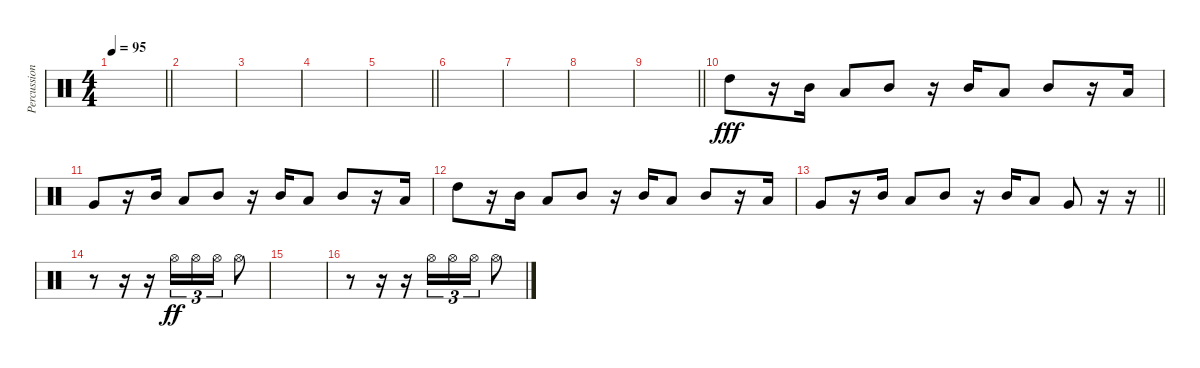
\track ("Percussions" "Percussion") {instrument percussion}
\staff {score}
\articulation defaults
\ts (4 4)
\tempo 95
\clef neutral
\barLineRight lightlight
\ks c
|
|
|
|
\barLineRight lightlight
|
|
|
|
\barLineRight lightlight
|
"High Tom (hit)".8{dy fff} r.16 "Mid Tom (hit)".16 "Low Tom (hit)".8 "Mid Tom (hit)".8 r.16 "Mid Tom (hit)".16 "Low Tom (hit)".8 "Mid Tom (hit)".8 r.16 "Low Tom (hit)".16 |
"Very Low Tom (hit)".8 r.16 "Mid Tom (hit)".16 "Low Tom (hit)".8 "Mid Tom (hit)".8 r.16 "Mid Tom (hit)".16 "Low Tom (hit)".8 "Mid Tom (hit)".8 r.16 "Low Tom (hit)".16 |
"High Tom (hit)".8 r.16 "Mid Tom (hit)".16 "Low Tom (hit)".8 "Mid Tom (hit)".8 r.16 "Mid Tom (hit)".16 "Low Tom (hit)".8 "Mid Tom (hit)".8 r.16 "Low Tom (hit)".16 |
\barLineRight lightlight "Very Low Tom (hit)".8
r.16 "Mid Tom (hit)".16 "Low Tom (hit)".8 "Mid Tom (hit)".8 r.16 "Mid Tom (hit)".16 "Low Tom (hit)".8 "Very Low Tom (hit)".8 r.16 r.16 |
r.8 r.16 r.16 "Hi-Hat (open)".16{tu (3 2) dy ff} "Hi-Hat (open)".16{tu (3 2)} "Hi-Hat (open)".16{tu (3 2)} "Hi-Hat (open)".8 |
|
r.8 r.16 r.16 "Hi-Hat (open)".16{tu (3 2)} "Hi-Hat (open)".16{tu (3 2)} "Hi-Hat (open)".16{tu (3 2)} "Hi-Hat (open)".8
